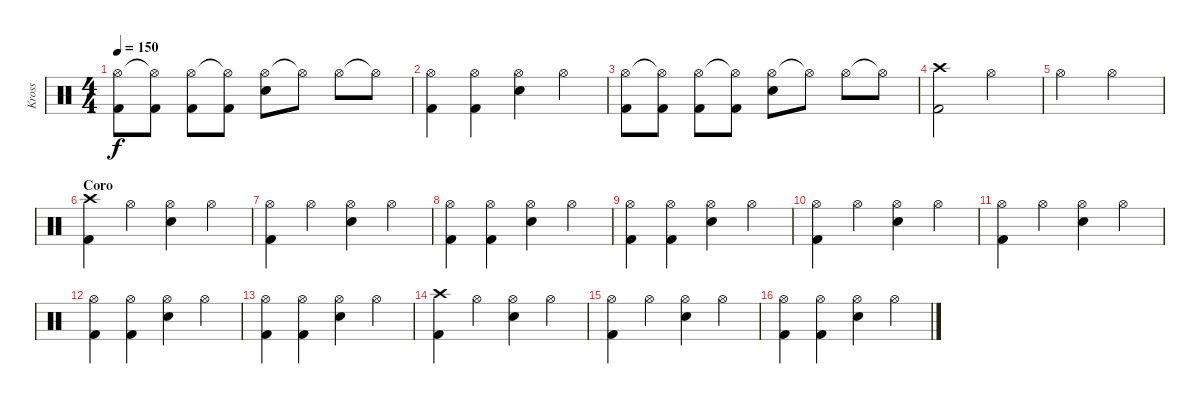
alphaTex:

\track ("Kross" "Kross") {instrument percussion}
\staff {score}
\articulation defaults
\ts (4 4)
\tempo 150
\clef neutral
\ks c
("Hi-Hat (open)" "Kick (hit) 2").8{dy f} ("Hi-Hat (open)"{t} "Kick (hit) 2").8 ("Hi-Hat (open)" "Kick (hit) 2").8 ("Hi-Hat (open)"{t} "Kick (hit) 2").8 ("Hi-Hat (open)" "Snare (hit) 2").8 "Hi-Hat (open)"{t}.8 "Hi-Hat (open)".8 "Hi-Hat (open)"{t}.8 |
("Hi-Hat (open)" "Kick (hit) 2").4 ("Hi-Hat (open)" "Kick (hit) 2").4 ("Hi-Hat (open)" "Snare (hit) 2").4 "Hi-Hat (open)".4 |
("Hi-Hat (open)" "Kick (hit) 2").8 ("Hi-Hat (open)"{t} "Kick (hit) 2").8 ("Hi-Hat (open)" "Kick (hit) 2").8 ("Hi-Hat (open)"{t} "Kick (hit) 2").8 ("Hi-Hat (open)" "Snare (hit) 2").8 "Hi-Hat (open)"{t}.8 "Hi-Hat (open)".8 "Hi-Hat (open)"{t}.8 |
("Crash high (hit)" "Kick (hit) 2").2 "Hi-Hat (open)".2 |
"Hi-Hat (open)".2 "Hi-Hat (open)".2 |
\section ("" "Coro")
("Crash high (hit)" "Kick (hit) 2").4 "Hi-Hat (open)".4 ("Hi-Hat (open)" "Snare (hit) 2").4 "Hi-Hat (open)".4 |
("Hi-Hat (open)" "Kick (hit) 2").4 "Hi-Hat (open)".4 ("Hi-Hat (open)" "Snare (hit) 2").4 "Hi-Hat (open)".4 |
("Hi-Hat (open)" "Kick (hit) 2").4 ("Hi-Hat (open)" "Kick (hit) 2").4 ("Hi-Hat (open)" "Snare (hit) 2").4 "Hi-Hat (open)".4 |
("Hi-Hat (open)" "Kick (hit) 2").4 ("Hi-Hat (open)" "Kick (hit) 2").4 ("Hi-Hat (open)" "Snare (hit) 2").4 "Hi-Hat (open)".4 |
("Hi-Hat (open)" "Kick (hit) 2").4 "Hi-Hat (open)".4 ("Hi-Hat (open)" "Snare (hit) 2").4 "Hi-Hat (open)".4 |
("Hi-Hat (open)" "Kick (hit) 2").4 "Hi-Hat (open)".4 ("Hi-Hat (open)" "Snare (hit) 2").4 "Hi-Hat (open)".4 |
("Hi-Hat (open)" "Kick (hit) 2").4 ("Hi-Hat (open)" "Kick (hit) 2").4 ("Hi-Hat (open)" "Snare (hit) 2").4 "Hi-Hat (open)".4 |
("Hi-Hat (open)" "Kick (hit) 2").4 ("Hi-Hat (open)" "Kick (hit) 2").4 ("Hi-Hat (open)" "Snare (hit) 2").4 "Hi-Hat (open)".4 |
("Crash high (hit)" "Kick (hit) 2").4 "Hi-Hat (open)".4 ("Hi-Hat (open)" "Snare (hit) 2").4 "Hi-Hat (open)".4 |
("Hi-Hat (open)" "Kick (hit) 2").4 "Hi-Hat (open)".4 ("Hi-Hat (open)" "Snare (hit) 2").4 "Hi-Hat (open)".4 |
("Hi-Hat (open)" "Kick (hit) 2").4 ("Hi-Hat (open)" "Kick (hit) 2").4 ("Hi-Hat (open)" "Snare (hit) 2").4 "Hi-Hat (open)".4
